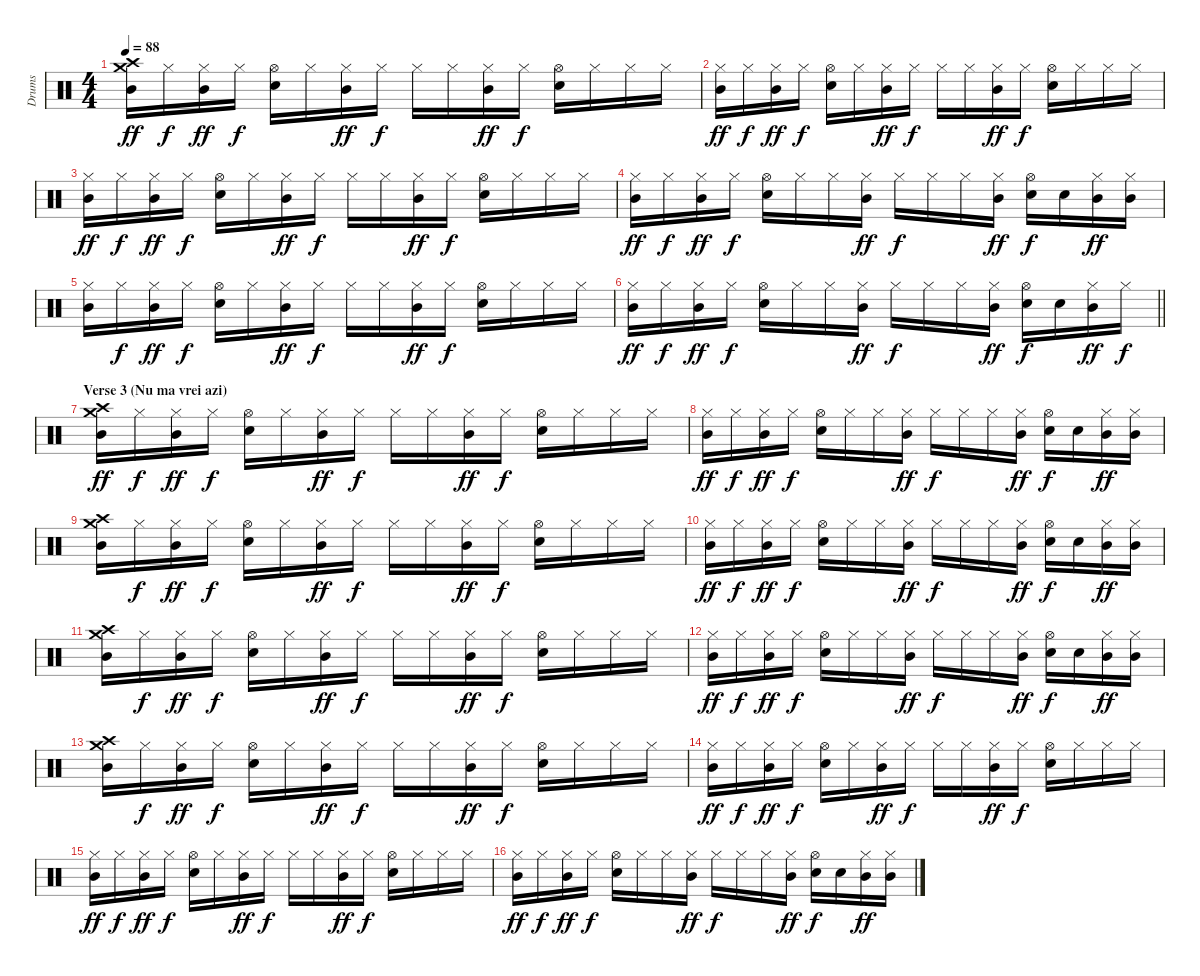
\track ("Drums" "Drums") {instrument percussion}
\staff {score}
\articulation defaults
\ts (4 4)
\tempo 88
\clef neutral
\ks c
("Crash medium (hit)" "Crash high (hit)" "Mid Tom (hit)").16{dy ff} "Hi-Hat (closed)".16{dy f} ("Hi-Hat (closed)" "Mid Tom (hit)").16{dy ff} "Hi-Hat (closed)".16{dy f} ("Hi-Hat (open)" "Electric Snare (hit)").16 "Hi-Hat (closed)".16 ("Hi-Hat (closed)" "Mid Tom (hit)").16{dy ff} "Hi-Hat (closed)".16{dy f} "Hi-Hat (closed)".16 "Hi-Hat (closed)".16 ("Hi-Hat (closed)" "Mid Tom (hit)").16{dy ff} "Hi-Hat (closed)".16{dy f} ("Hi-Hat (open)" "Electric Snare (hit)").16 "Hi-Hat (closed)".16 "Hi-Hat (closed)".16 "Hi-Hat (closed)".16 |
("Hi-Hat (closed)" "Mid Tom (hit)").16{dy ff} "Hi-Hat (closed)".16{dy f} ("Hi-Hat (closed)" "Mid Tom (hit)").16{dy ff} "Hi-Hat (closed)".16{dy f} ("Hi-Hat (open)" "Electric Snare (hit)").16 "Hi-Hat (closed)".16 ("Hi-Hat (closed)" "Mid Tom (hit)").16{dy ff} "Hi-Hat (closed)".16{dy f} "Hi-Hat (closed)".16 "Hi-Hat (closed)".16 ("Hi-Hat (closed)" "Mid Tom (hit)").16{dy ff} "Hi-Hat (closed)".16{dy f} ("Hi-Hat (open)" "Electric Snare (hit)").16 "Hi-Hat (closed)".16 "Hi-Hat (closed)".16 "Hi-Hat (closed)".16 |
("Hi-Hat (closed)" "Mid Tom (hit)").16{dy ff} "Hi-Hat (closed)".16{dy f} ("Hi-Hat (closed)" "Mid Tom (hit)").16{dy ff} "Hi-Hat (closed)".16{dy f} ("Hi-Hat (open)" "Electric Snare (hit)").16 "Hi-Hat (closed)".16 ("Hi-Hat (closed)" "Mid Tom (hit)").16{dy ff} "Hi-Hat (closed)".16{dy f} "Hi-Hat (closed)".16 "Hi-Hat (closed)".16 ("Hi-Hat (closed)" "Mid Tom (hit)").16{dy ff} "Hi-Hat (closed)".16{dy f} ("Hi-Hat (open)" "Electric Snare (hit)").16 "Hi-Hat (closed)".16 "Hi-Hat (closed)".16 "Hi-Hat (closed)".16 |
("Hi-Hat (closed)" "Mid Tom (hit)").16{dy ff} "Hi-Hat (closed)".16{dy f} ("Hi-Hat (closed)" "Mid Tom (hit)").16{dy ff} "Hi-Hat (closed)".16{dy f} ("Hi-Hat (open)" "Electric Snare (hit)").16 "Hi-Hat (closed)".16 "Hi-Hat (closed)".16 ("Hi-Hat (closed)" "Mid Tom (hit)").16{dy ff} "Hi-Hat (closed)".16{dy f} "Hi-Hat (closed)".16 "Hi-Hat (closed)".16 ("Hi-Hat (closed)" "Mid Tom (hit)").16{dy ff} ("Hi-Hat (open)" "Electric Snare (hit)").16{dy f} "Electric Snare (hit)".16 ("Hi-Hat (closed)" "Mid Tom (hit)").16{dy ff} ("Hi-Hat (closed)" "Mid Tom (hit)").16 |
("Hi-Hat (closed)" "Mid Tom (hit)").16 "Hi-Hat (closed)".16{dy f} ("Hi-Hat (closed)" "Mid Tom (hit)").16{dy ff} "Hi-Hat (closed)".16{dy f} ("Hi-Hat (open)" "Electric Snare (hit)").16 "Hi-Hat (closed)".16 ("Hi-Hat (closed)" "Mid Tom (hit)").16{dy ff} "Hi-Hat (closed)".16{dy f} "Hi-Hat (closed)".16 "Hi-Hat (closed)".16 ("Hi-Hat (closed)" "Mid Tom (hit)").16{dy ff} "Hi-Hat (closed)".16{dy f} ("Hi-Hat (open)" "Electric Snare (hit)").16 "Hi-Hat (closed)".16 "Hi-Hat (closed)".16 "Hi-Hat (closed)".16 |
\barLineRight lightlight
("Hi-Hat (closed)" "Mid Tom (hit)").16{dy ff} "Hi-Hat (closed)".16{dy f} ("Hi-Hat (closed)" "Mid Tom (hit)").16{dy ff} "Hi-Hat (closed)".16{dy f} ("Hi-Hat (open)" "Electric Snare (hit)").16 "Hi-Hat (closed)".16 "Hi-Hat (closed)".16 ("Hi-Hat (closed)" "Mid Tom (hit)").16{dy ff} "Hi-Hat (closed)".16{dy f} "Hi-Hat (closed)".16 "Hi-Hat (closed)".16 ("Hi-Hat (closed)" "Mid Tom (hit)").16{dy ff} ("Hi-Hat (open)" "Electric Snare (hit)").16{dy f} "Electric Snare (hit)".16 ("Hi-Hat (closed)" "Mid Tom (hit)").16{dy ff} "Hi-Hat (closed)".16{dy f} |
\section ("" "Verse 3 (Nu ma vrei azi)")
("Crash medium (hit)" "Crash high (hit)" "Mid Tom (hit)").16{dy ff} "Hi-Hat (closed)".16{dy f} ("Hi-Hat (closed)" "Mid Tom (hit)").16{dy ff} "Hi-Hat (closed)".16{dy f} ("Hi-Hat (open)" "Electric Snare (hit)").16 "Hi-Hat (closed)".16 ("Hi-Hat (closed)" "Mid Tom (hit)").16{dy ff} "Hi-Hat (closed)".16{dy f} "Hi-Hat (closed)".16 "Hi-Hat (closed)".16 ("Hi-Hat (closed)" "Mid Tom (hit)").16{dy ff} "Hi-Hat (closed)".16{dy f} ("Hi-Hat (open)" "Electric Snare (hit)").16 "Hi-Hat (closed)".16 "Hi-Hat (closed)".16 "Hi-Hat (closed)".16 |
("Hi-Hat (closed)" "Mid Tom (hit)").16{dy ff} "Hi-Hat (closed)".16{dy f} ("Hi-Hat (closed)" "Mid Tom (hit)").16{dy ff} "Hi-Hat (closed)".16{dy f} ("Hi-Hat (open)" "Electric Snare (hit)").16 "Hi-Hat (closed)".16 "Hi-Hat (closed)".16 ("Hi-Hat (closed)" "Mid Tom (hit)").16{dy ff} "Hi-Hat (closed)".16{dy f} "Hi-Hat (closed)".16 "Hi-Hat (closed)".16 ("Hi-Hat (closed)" "Mid Tom (hit)").16{dy ff} ("Hi-Hat (open)" "Electric Snare (hit)").16{dy f} "Electric Snare (hit)".16 ("Hi-Hat (closed)" "Mid Tom (hit)").16{dy ff} ("Hi-Hat (closed)" "Mid Tom (hit)").16 |
("Crash medium (hit)" "Crash high (hit)" "Mid Tom (hit)").16 "Hi-Hat (closed)".16{dy f} ("Hi-Hat (closed)" "Mid Tom (hit)").16{dy ff} "Hi-Hat (closed)".16{dy f} ("Hi-Hat (open)" "Electric Snare (hit)").16 "Hi-Hat (closed)".16 ("Hi-Hat (closed)" "Mid Tom (hit)").16{dy ff} "Hi-Hat (closed)".16{dy f} "Hi-Hat (closed)".16 "Hi-Hat (closed)".16 ("Hi-Hat (closed)" "Mid Tom (hit)").16{dy ff} "Hi-Hat (closed)".16{dy f} ("Hi-Hat (open)" "Electric Snare (hit)").16 "Hi-Hat (closed)".16 "Hi-Hat (closed)".16 "Hi-Hat (closed)".16 |
("Hi-Hat (closed)" "Mid Tom (hit)").16{dy ff} "Hi-Hat (closed)".16{dy f} ("Hi-Hat (closed)" "Mid Tom (hit)").16{dy ff} "Hi-Hat (closed)".16{dy f} ("Hi-Hat (open)" "Electric Snare (hit)").16 "Hi-Hat (closed)".16 "Hi-Hat (closed)".16 ("Hi-Hat (closed)" "Mid Tom (hit)").16{dy ff} "Hi-Hat (closed)".16{dy f} "Hi-Hat (closed)".16 "Hi-Hat (closed)".16 ("Hi-Hat (closed)" "Mid Tom (hit)").16{dy ff} ("Hi-Hat (open)" "Electric Snare (hit)").16{dy f} "Electric Snare (hit)".16 ("Hi-Hat (closed)" "Mid Tom (hit)").16{dy ff} ("Hi-Hat (closed)" "Mid Tom (hit)").16 |
("Crash medium (hit)" "Crash high (hit)" "Mid Tom (hit)").16 "Hi-Hat (closed)".16{dy f} ("Hi-Hat (closed)" "Mid Tom (hit)").16{dy ff} "Hi-Hat (closed)".16{dy f} ("Hi-Hat (open)" "Electric Snare (hit)").16 "Hi-Hat (closed)".16 ("Hi-Hat (closed)" "Mid Tom (hit)").16{dy ff} "Hi-Hat (closed)".16{dy f} "Hi-Hat (closed)".16 "Hi-Hat (closed)".16 ("Hi-Hat (closed)" "Mid Tom (hit)").16{dy ff} "Hi-Hat (closed)".16{dy f} ("Hi-Hat (open)" "Electric Snare (hit)").16 "Hi-Hat (closed)".16 "Hi-Hat (closed)".16 "Hi-Hat (closed)".16 |
("Hi-Hat (closed)" "Mid Tom (hit)").16{dy ff} "Hi-Hat (closed)".16{dy f} ("Hi-Hat (closed)" "Mid Tom (hit)").16{dy ff} "Hi-Hat (closed)".16{dy f} ("Hi-Hat (open)" "Electric Snare (hit)").16 "Hi-Hat (closed)".16 "Hi-Hat (closed)".16 ("Hi-Hat (closed)" "Mid Tom (hit)").16{dy ff} "Hi-Hat (closed)".16{dy f} "Hi-Hat (closed)".16 "Hi-Hat (closed)".16 ("Hi-Hat (closed)" "Mid Tom (hit)").16{dy ff} ("Hi-Hat (open)" "Electric Snare (hit)").16{dy f} "Electric Snare (hit)".16 ("Hi-Hat (closed)" "Mid Tom (hit)").16{dy ff} ("Hi-Hat (closed)" "Mid Tom (hit)").16 |
("Crash medium (hit)" "Crash high (hit)" "Mid Tom (hit)").16 "Hi-Hat (closed)".16{dy f} ("Hi-Hat (closed)" "Mid Tom (hit)").16{dy ff} "Hi-Hat (closed)".16{dy f} ("Hi-Hat (open)" "Electric Snare (hit)").16 "Hi-Hat (closed)".16 ("Hi-Hat (closed)" "Mid Tom (hit)").16{dy ff} "Hi-Hat (closed)".16{dy f} "Hi-Hat (closed)".16 "Hi-Hat (closed)".16 ("Hi-Hat (closed)" "Mid Tom (hit)").16{dy ff} "Hi-Hat (closed)".16{dy f} ("Hi-Hat (open)" "Electric Snare (hit)").16 "Hi-Hat (closed)".16 "Hi-Hat (closed)".16 "Hi-Hat (closed)".16 |
("Hi-Hat (closed)" "Mid Tom (hit)").16{dy ff} "Hi-Hat (closed)".16{dy f} ("Hi-Hat (closed)" "Mid Tom (hit)").16{dy ff} "Hi-Hat (closed)".16{dy f} ("Hi-Hat (open)" "Electric Snare (hit)").16 "Hi-Hat (closed)".16 ("Hi-Hat (closed)" "Mid Tom (hit)").16{dy ff} "Hi-Hat (closed)".16{dy f} "Hi-Hat (closed)".16 "Hi-Hat (closed)".16 ("Hi-Hat (closed)" "Mid Tom (hit)").16{dy ff} "Hi-Hat (closed)".16{dy f} ("Hi-Hat (open)" "Electric Snare (hit)").16 "Hi-Hat (closed)".16 "Hi-Hat (closed)".16 "Hi-Hat (closed)".16 |
("Hi-Hat (closed)" "Mid Tom (hit)").16{dy ff} "Hi-Hat (closed)".16{dy f} ("Hi-Hat (closed)" "Mid Tom (hit)").16{dy ff} "Hi-Hat (closed)".16{dy f} ("Hi-Hat (open)" "Electric Snare (hit)").16 "Hi-Hat (closed)".16 ("Hi-Hat (closed)" "Mid Tom (hit)").16{dy ff} "Hi-Hat (closed)".16{dy f} "Hi-Hat (closed)".16 "Hi-Hat (closed)".16 ("Hi-Hat (closed)" "Mid Tom (hit)").16{dy ff} "Hi-Hat (closed)".16{dy f} ("Hi-Hat (open)" "Electric Snare (hit)").16 "Hi-Hat (closed)".16 "Hi-Hat (closed)".16 "Hi-Hat (closed)".16 |
("Hi-Hat (closed)" "Mid Tom (hit)").16{dy ff} "Hi-Hat (closed)".16{dy f} ("Hi-Hat (closed)" "Mid Tom (hit)").16{dy ff} "Hi-Hat (closed)".16{dy f} ("Hi-Hat (open)" "Electric Snare (hit)").16 "Hi-Hat (closed)".16 "Hi-Hat (closed)".16 ("Hi-Hat (closed)" "Mid Tom (hit)").16{dy ff} "Hi-Hat (closed)".16{dy f} "Hi-Hat (closed)".16 "Hi-Hat (closed)".16 ("Hi-Hat (closed)" "Mid Tom (hit)").16{dy ff} ("Hi-Hat (open)" "Electric Snare (hit)").16{dy f} "Electric Snare (hit)".16 ("Hi-Hat (closed)" "Mid Tom (hit)").16{dy ff} ("Hi-Hat (closed)" "Mid Tom (hit)").16
